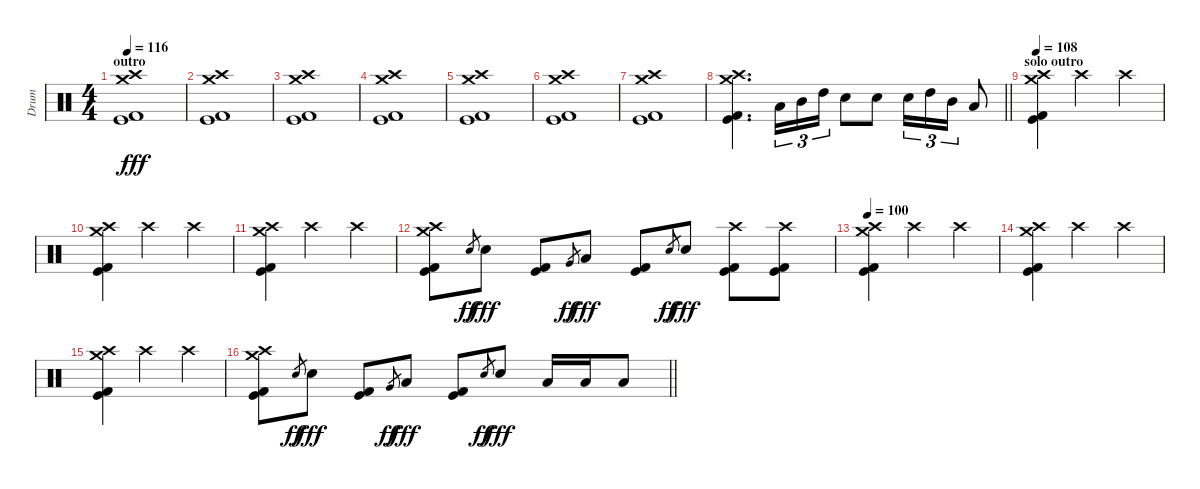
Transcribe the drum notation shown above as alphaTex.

\track ("Drum" "Drum") {instrument percussion}
\staff {score}
\articulation defaults
\ts (4 4)
\section ("" "outro")
\tempo 116
\clef neutral
\ks c
("Crash medium (hit)" "Crash high (hit)" "Kick (hit)" "Kick (hit) 2").1{dy fff} |
("Crash medium (hit)" "Crash high (hit)" "Kick (hit)" "Kick (hit) 2").1 |
("Crash medium (hit)" "Crash high (hit)" "Kick (hit)" "Kick (hit) 2").1 |
("Crash medium (hit)" "Crash high (hit)" "Kick (hit)" "Kick (hit) 2").1 |
("Crash medium (hit)" "Crash high (hit)" "Kick (hit)" "Kick (hit) 2").1 |
("Crash medium (hit)" "Crash high (hit)" "Kick (hit)" "Kick (hit) 2").1 |
("Crash medium (hit)" "Crash high (hit)" "Kick (hit)" "Kick (hit) 2").1 |
\barLineRight lightlight
("Crash medium (hit)" "Crash high (hit)" "Kick (hit)" "Kick (hit) 2").4{d} "Low Tom (hit)".16{tu (3 2)} "Mid Tom (hit)".16{tu (3 2)} "High Tom (hit)".16{tu (3 2)} "Electric Snare (hit)".8 "Electric Snare (hit)".8 "Electric Snare (hit)".16{tu (3 2)} "High Tom (hit)".16{tu (3 2)} "Mid Tom (hit)".16{tu (3 2)} "Low Tom (hit)".8 |
\section ("" "solo outro")
\tempo 108
("Crash medium (hit)" "Crash high (hit)" "Kick (hit)" "Kick (hit) 2").4 "Crash high (hit)".2 "Crash high (hit)".4 |
("Crash medium (hit)" "Crash high (hit)" "Kick (hit)" "Kick (hit) 2").4 "Crash high (hit)".2 "Crash high (hit)".4 |
("Crash medium (hit)" "Crash high (hit)" "Kick (hit)" "Kick (hit) 2").4 "Crash high (hit)".2 "Crash high (hit)".4 |
("Crash medium (hit)" "Crash high (hit)" "Kick (hit)" "Kick (hit) 2").8 "Electric Snare (hit)".8{gr dy ff} "Electric Snare (hit)".8{dy fff} ("Kick (hit)" "Kick (hit) 2").8 "Very Low Tom (hit)".8{gr dy ff} "Low Tom (hit)".8{dy fff} ("Kick (hit)" "Kick (hit) 2").8 "Electric Snare (hit)".8{gr dy ff} "Electric Snare (hit)".8{dy fff} ("Crash high (hit)" "Kick (hit)" "Kick (hit) 2").8 ("Crash high (hit)" "Kick (hit)" "Kick (hit) 2").8 |
\tempo 100
("Crash medium (hit)" "Crash high (hit)" "Kick (hit)" "Kick (hit) 2").4 "Crash high (hit)".2 "Crash high (hit)".4 |
("Crash medium (hit)" "Crash high (hit)" "Kick (hit)" "Kick (hit) 2").4 "Crash high (hit)".2 "Crash high (hit)".4 |
("Crash medium (hit)" "Crash high (hit)" "Kick (hit)" "Kick (hit) 2").4 "Crash high (hit)".2 "Crash high (hit)".4 |
\barLineRight lightlight
("Crash medium (hit)" "Crash high (hit)" "Kick (hit)" "Kick (hit) 2").8 "Electric Snare (hit)".8{gr dy ff} "Electric Snare (hit)".8{dy fff} ("Kick (hit)" "Kick (hit) 2").8 "Very Low Tom (hit)".8{gr dy ff} "Low Tom (hit)".8{dy fff} ("Kick (hit)" "Kick (hit) 2").8 "Electric Snare (hit)".8{gr dy ff} "Electric Snare (hit)".8{dy fff} "Low Tom (hit)".16 "Low Tom (hit)".16 "Low Tom (hit)".8
